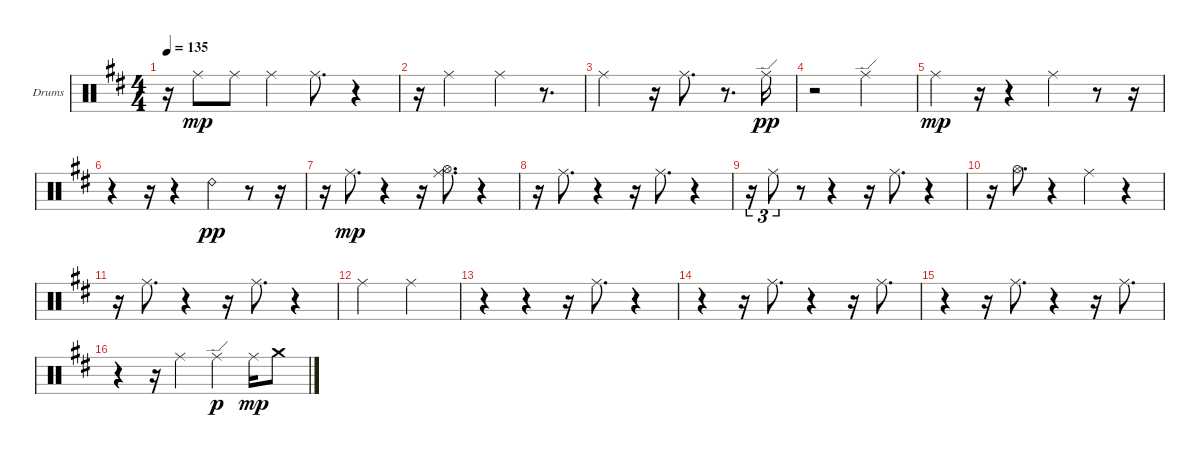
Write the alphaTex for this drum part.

\bracketExtendMode groupsimilarinstruments
\firstSystemTrackNameOrientation horizontal
\otherSystemsTrackNameOrientation horizontal
\track ("OH" "Drums") {instrument percussion}
\staff {score}
\articulation defaults
\ts (4 4)
\tempo 135
\clef neutral
\ks d
r.16{dy mp} "Ride (middle)".8 "Ride (middle)".8 "Ride (middle)".4 "Ride (middle)".8{d} r.4 |
r.16 "Ride (middle)".2 "Ride (middle)".4 r.8{d} |
"Ride (middle)".2 r.16 "Ride (middle)".8{d} r.8{d} "Ride (edge)".16{dy pp} |
r.2 "Ride (edge)".2 |
"Ride (middle)".4{dy mp} r.16 r.4 "Ride (middle)".4 r.8 r.16 |
r.4 r.16 r.4 "Ride (bell) 2".4{dy pp} r.8 r.16 |
r.16 "Ride (middle)".8{d dy mp} r.4 r.16 ("Ride (middle)" "Hi-Hat (open)").8{d} r.4 |
r.16 "Ride (middle)".8{d} r.4 r.16 "Ride (middle)".8{d} r.4 |
r.16{tu (3 2)} "Ride (middle)".8{tu (3 2)} r.8 r.4 r.16 "Ride (middle)".8{d} r.4 |
r.16 "Hi-Hat (open)".8{d} r.4 "Ride (middle)".4 r.4 |
r.16 "Ride (middle)".8{d} r.4 r.16 "Ride (middle)".8{d} r.4 |
"Ride (middle)".2 "Ride (middle)".2 |
r.4 r.4 r.16 "Ride (middle)".8{d} r.4 |
r.4 r.16 "Ride (middle)".8{d} r.4 r.16 "Ride (middle)".8{d} |
r.4 r.16 "Ride (middle)".8{d} r.4 r.16 "Ride (middle)".8{d} |
r.4 r.16 "Ride (middle)".4 "Ride (edge)".4{dy p} "Ride (middle)".16{dy mp} "Crash medium (hit)".8
